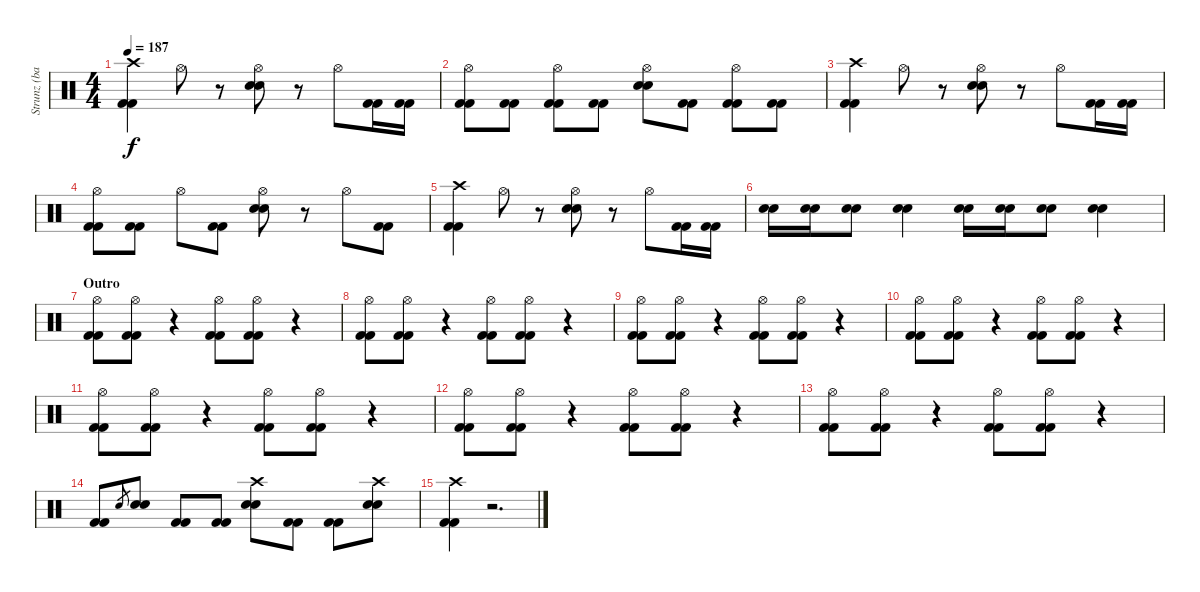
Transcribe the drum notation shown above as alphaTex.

\track ("Strunz (bateria)" "Strunz (ba") {instrument percussion}
\staff {score}
\articulation defaults
\ts (4 4)
\tempo 187
\clef neutral
\ks c
("Crash high (hit)" "Kick (hit) 2" "Kick (hit) 2").4{dy f} "Hi-Hat (open)".8 r.8 ("Hi-Hat (open)" "Snare (hit) 2" "Snare (hit) 2").8 r.8 "Hi-Hat (open)".8 ("Kick (hit) 2" "Kick (hit) 2").16 ("Kick (hit) 2" "Kick (hit) 2").16 |
("Hi-Hat (open)" "Kick (hit) 2" "Kick (hit) 2").8 ("Kick (hit) 2" "Kick (hit) 2").8 ("Hi-Hat (open)" "Kick (hit) 2" "Kick (hit) 2").8 ("Kick (hit) 2" "Kick (hit) 2").8 ("Hi-Hat (open)" "Snare (hit) 2" "Snare (hit) 2").8 ("Kick (hit) 2" "Kick (hit) 2").8 ("Hi-Hat (open)" "Kick (hit) 2" "Kick (hit) 2").8 ("Kick (hit) 2" "Kick (hit) 2").8 |
("Crash high (hit)" "Kick (hit) 2" "Kick (hit) 2").4 "Hi-Hat (open)".8 r.8 ("Hi-Hat (open)" "Snare (hit) 2" "Snare (hit) 2").8 r.8 "Hi-Hat (open)".8 ("Kick (hit) 2" "Kick (hit) 2").16 ("Kick (hit) 2" "Kick (hit) 2").16 |
("Hi-Hat (open)" "Kick (hit) 2" "Kick (hit) 2").8 ("Kick (hit) 2" "Kick (hit) 2").8 "Hi-Hat (open)".8 ("Kick (hit) 2" "Kick (hit) 2").8 ("Hi-Hat (open)" "Snare (hit) 2" "Snare (hit) 2").8 r.8 "Hi-Hat (open)".8 ("Kick (hit) 2" "Kick (hit) 2").8 |
("Crash high (hit)" "Kick (hit) 2" "Kick (hit) 2").4 "Hi-Hat (open)".8 r.8 ("Hi-Hat (open)" "Snare (hit) 2" "Snare (hit) 2").8 r.8 "Hi-Hat (open)".8 ("Kick (hit) 2" "Kick (hit) 2").16 ("Kick (hit) 2" "Kick (hit) 2").16 |
("Electric Snare (hit)" "Electric Snare (hit)").16 ("Electric Snare (hit)" "Electric Snare (hit)").16 ("Electric Snare (hit)" "Electric Snare (hit)").8 ("Electric Snare (hit)" "Electric Snare (hit)").4 ("Electric Snare (hit)" "Electric Snare (hit)").16 ("Electric Snare (hit)" "Electric Snare (hit)").16 ("Electric Snare (hit)" "Electric Snare (hit)").8 ("Electric Snare (hit)" "Electric Snare (hit)").4 |
\section ("" "Outro")
("Hi-Hat (open)" "Kick (hit) 2" "Kick (hit) 2").8 ("Hi-Hat (open)" "Kick (hit) 2" "Kick (hit) 2").8 r.4 ("Hi-Hat (open)" "Kick (hit) 2" "Kick (hit) 2").8 ("Hi-Hat (open)" "Kick (hit) 2" "Kick (hit) 2").8 r.4 |
("Hi-Hat (open)" "Kick (hit) 2" "Kick (hit) 2").8 ("Hi-Hat (open)" "Kick (hit) 2" "Kick (hit) 2").8 r.4 ("Hi-Hat (open)" "Kick (hit) 2" "Kick (hit) 2").8 ("Hi-Hat (open)" "Kick (hit) 2" "Kick (hit) 2").8 r.4 |
("Hi-Hat (open)" "Kick (hit) 2" "Kick (hit) 2").8 ("Hi-Hat (open)" "Kick (hit) 2" "Kick (hit) 2").8 r.4 ("Hi-Hat (open)" "Kick (hit) 2" "Kick (hit) 2").8 ("Hi-Hat (open)" "Kick (hit) 2" "Kick (hit) 2").8 r.4 |
("Hi-Hat (open)" "Kick (hit) 2" "Kick (hit) 2").8 ("Hi-Hat (open)" "Kick (hit) 2" "Kick (hit) 2").8 r.4 ("Hi-Hat (open)" "Kick (hit) 2" "Kick (hit) 2").8 ("Hi-Hat (open)" "Kick (hit) 2" "Kick (hit) 2").8 r.4 |
("Hi-Hat (open)" "Kick (hit) 2" "Kick (hit) 2").8 ("Hi-Hat (open)" "Kick (hit) 2" "Kick (hit) 2").8 r.4 ("Hi-Hat (open)" "Kick (hit) 2" "Kick (hit) 2").8 ("Hi-Hat (open)" "Kick (hit) 2" "Kick (hit) 2").8 r.4 |
("Hi-Hat (open)" "Kick (hit) 2" "Kick (hit) 2").8 ("Hi-Hat (open)" "Kick (hit) 2" "Kick (hit) 2").8 r.4 ("Hi-Hat (open)" "Kick (hit) 2" "Kick (hit) 2").8 ("Hi-Hat (open)" "Kick (hit) 2" "Kick (hit) 2").8 r.4 |
("Hi-Hat (open)" "Kick (hit) 2" "Kick (hit) 2").8 ("Hi-Hat (open)" "Kick (hit) 2" "Kick (hit) 2").8 r.4 ("Hi-Hat (open)" "Kick (hit) 2" "Kick (hit) 2").8 ("Hi-Hat (open)" "Kick (hit) 2" "Kick (hit) 2").8 r.4 |
("Kick (hit) 2" "Kick (hit) 2").8 "Snare (hit) 2".8{gr} ("Snare (hit) 2" "Snare (hit) 2").8 ("Kick (hit) 2" "Kick (hit) 2").8 ("Kick (hit) 2" "Kick (hit) 2").8 ("Crash high (hit)" "Snare (hit) 2" "Snare (hit) 2").8 ("Kick (hit) 2" "Kick (hit) 2").8 ("Kick (hit) 2" "Kick (hit) 2").8 ("Crash high (hit)" "Snare (hit) 2" "Snare (hit) 2").8 |
("Crash high (hit)" "Kick (hit) 2" "Kick (hit) 2").4 r.2{d}
